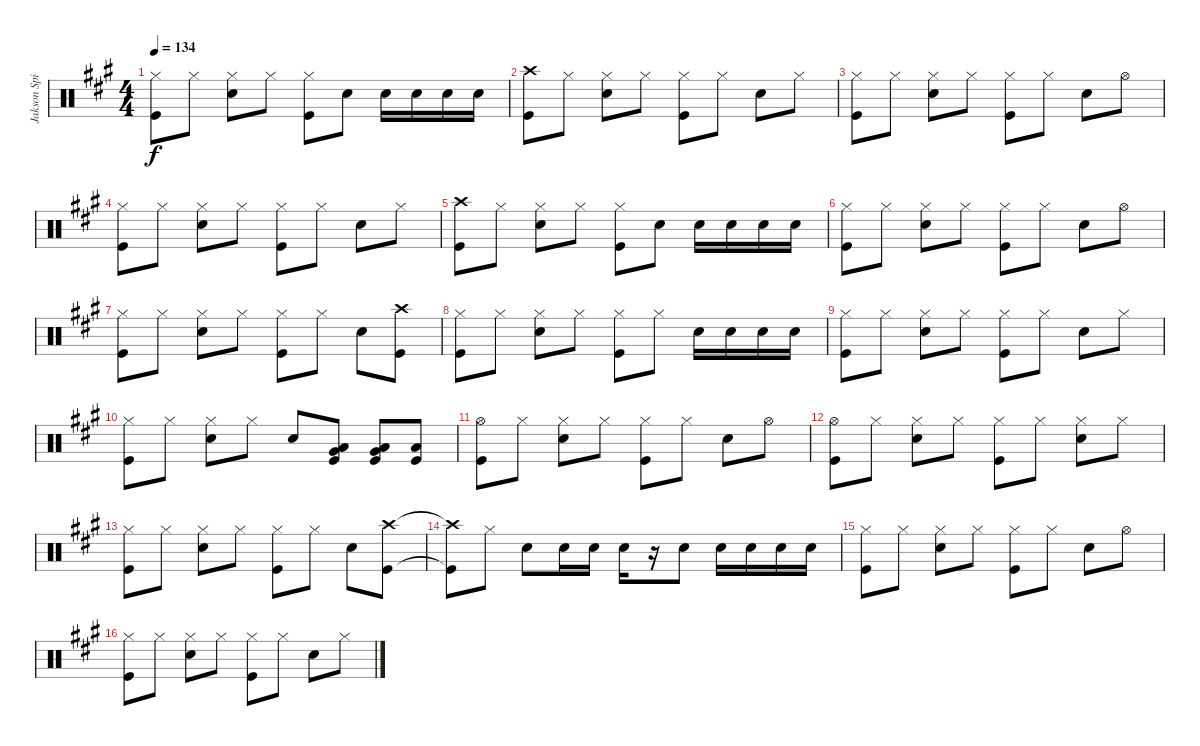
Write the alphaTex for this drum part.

\track ("Jakson Spires Drums" "Jakson Spi") {instrument percussion}
\staff {score}
\articulation defaults
\ts (4 4)
\tempo 134
\clef neutral
\ks a
("Hi-Hat (closed)" "Kick (hit)").8{dy f} "Hi-Hat (closed)".8 ("Hi-Hat (closed)" "Snare (hit) 2").8 "Hi-Hat (closed)".8 ("Hi-Hat (closed)" "Kick (hit)").8 "Snare (hit) 2".8 "Snare (hit) 2".16 "Snare (hit) 2".16 "Snare (hit) 2".16 "Snare (hit) 2".16 |
("Crash high (hit)" "Kick (hit)").8 "Hi-Hat (closed)".8 ("Hi-Hat (closed)" "Snare (hit) 2").8 "Hi-Hat (closed)".8 ("Hi-Hat (closed)" "Kick (hit)").8 "Hi-Hat (closed)".8 "Snare (hit) 2".8 "Hi-Hat (closed)".8 |
("Hi-Hat (closed)" "Kick (hit)").8 "Hi-Hat (closed)".8 ("Hi-Hat (closed)" "Snare (hit) 2").8 "Hi-Hat (closed)".8 ("Hi-Hat (closed)" "Kick (hit)").8 "Hi-Hat (closed)".8 "Snare (hit) 2".8 "Hi-Hat (open)".8 |
("Hi-Hat (closed)" "Kick (hit)").8 "Hi-Hat (closed)".8 ("Hi-Hat (closed)" "Snare (hit) 2").8 "Hi-Hat (closed)".8 ("Hi-Hat (closed)" "Kick (hit)").8 "Hi-Hat (closed)".8 "Snare (hit) 2".8 "Hi-Hat (closed)".8 |
("Crash high (hit)" "Kick (hit)").8 "Hi-Hat (closed)".8 ("Hi-Hat (closed)" "Snare (hit) 2").8 "Hi-Hat (closed)".8 ("Hi-Hat (closed)" "Kick (hit)").8 "Snare (hit) 2".8 "Snare (hit) 2".16 "Snare (hit) 2".16 "Snare (hit) 2".16 "Snare (hit) 2".16 |
("Hi-Hat (closed)" "Kick (hit)").8 "Hi-Hat (closed)".8 ("Hi-Hat (closed)" "Snare (hit) 2").8 "Hi-Hat (closed)".8 ("Hi-Hat (closed)" "Kick (hit)").8 "Hi-Hat (closed)".8 "Snare (hit) 2".8 "Hi-Hat (open)".8 |
("Hi-Hat (closed)" "Kick (hit)").8 "Hi-Hat (closed)".8 ("Hi-Hat (closed)" "Snare (hit) 2").8 "Hi-Hat (closed)".8 ("Hi-Hat (closed)" "Kick (hit)").8 "Hi-Hat (closed)".8 "Snare (hit) 2".8 ("Crash high (hit)" "Kick (hit)").8 |
("Hi-Hat (closed)" "Kick (hit)").8 "Hi-Hat (closed)".8 ("Hi-Hat (closed)" "Snare (hit) 2").8 "Hi-Hat (closed)".8 ("Hi-Hat (closed)" "Kick (hit)").8 "Hi-Hat (closed)".8 "Snare (hit) 2".16 "Snare (hit) 2".16 "Snare (hit) 2".16 "Snare (hit) 2".16 |
("Hi-Hat (closed)" "Kick (hit)").8 "Hi-Hat (closed)".8 ("Hi-Hat (closed)" "Snare (hit) 2").8 "Hi-Hat (closed)".8 ("Hi-Hat (closed)" "Kick (hit)").8 "Hi-Hat (closed)".8 "Snare (hit) 2".8 "Hi-Hat (closed)".8 |
("Hi-Hat (closed)" "Kick (hit)").8 "Hi-Hat (closed)".8 ("Hi-Hat (closed)" "Snare (hit) 2").8 "Hi-Hat (closed)".8 "Snare (hit) 2".8 ("Low Tom (hit)" "Very Low Tom (hit)" "Kick (hit)").8 ("Low Tom (hit)" "Very Low Tom (hit)" "Kick (hit)").8 ("Low Tom (hit)" "Kick (hit)").8 |
("Hi-Hat (open)" "Kick (hit)").8 "Hi-Hat (closed)".8 ("Hi-Hat (closed)" "Snare (hit) 2").8 "Hi-Hat (closed)".8 ("Hi-Hat (closed)" "Kick (hit)").8 "Hi-Hat (closed)".8 "Snare (hit) 2".8 "Hi-Hat (open)".8 |
("Hi-Hat (open)" "Kick (hit)").8 "Hi-Hat (closed)".8 ("Hi-Hat (closed)" "Snare (hit) 2").8 "Hi-Hat (closed)".8 ("Hi-Hat (closed)" "Kick (hit)").8 "Hi-Hat (closed)".8 ("Hi-Hat (closed)" "Snare (hit) 2").8 "Hi-Hat (closed)".8 |
("Hi-Hat (closed)" "Kick (hit)").8 "Hi-Hat (closed)".8 ("Hi-Hat (closed)" "Snare (hit) 2").8 "Hi-Hat (closed)".8 ("Hi-Hat (closed)" "Kick (hit)").8 "Hi-Hat (closed)".8 "Snare (hit) 2".8 ("Crash high (hit)" "Kick (hit)").8 |
("Crash high (hit)"{t} "Kick (hit)"{t}).8 "Hi-Hat (closed)".8 "Snare (hit) 2".8 "Snare (hit) 2".16 "Snare (hit) 2".16 "Snare (hit) 2".16 r.16 "Snare (hit) 2".8 "Snare (hit) 2".16 "Snare (hit) 2".16 "Snare (hit) 2".16 "Snare (hit) 2".16 |
("Hi-Hat (closed)" "Kick (hit)").8 "Hi-Hat (closed)".8 ("Hi-Hat (closed)" "Snare (hit) 2").8 "Hi-Hat (closed)".8 ("Hi-Hat (closed)" "Kick (hit)").8 "Hi-Hat (closed)".8 "Snare (hit) 2".8 "Hi-Hat (open)".8 |
("Hi-Hat (closed)" "Kick (hit)").8 "Hi-Hat (closed)".8 ("Hi-Hat (closed)" "Snare (hit) 2").8 "Hi-Hat (closed)".8 ("Hi-Hat (closed)" "Kick (hit)").8 "Hi-Hat (closed)".8 "Snare (hit) 2".8 "Hi-Hat (closed)".8
